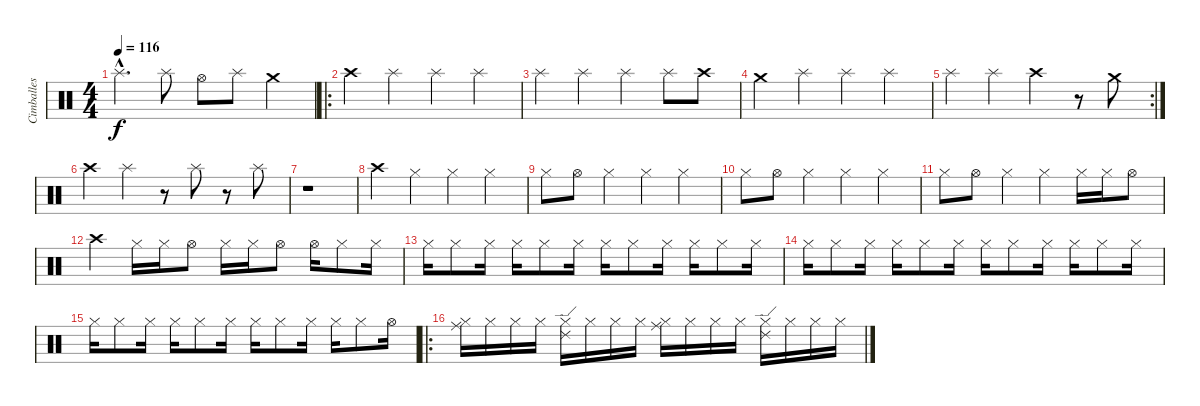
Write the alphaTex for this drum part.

\track ("Cimballes" "Cimballes") {instrument percussion}
\staff {score}
\articulation defaults
\ts (4 4)
\tempo 116
\clef neutral
\ks c "Splash (hit)"{hac}.4{d dy f} "Splash (hit)".8 "Hi-Hat (open)".8 "Splash (hit)".8 "Crash medium (hit)".4
|
\ro "Crash high (hit)".4 "Splash (hit)".4 "Splash (hit)".4 "Splash (hit)".4
|
"Splash (hit)".4 "Splash (hit)".4 "Splash (hit)".4 "Splash (hit)".8 "Crash high (hit)".8 |
"Crash medium (hit)".4 "Splash (hit)".4 "Splash (hit)".4 "Splash (hit)".4 |
\rc 2 "Splash (hit)".4 "Splash (hit)".4 "Crash high (hit)".4
r.8 "Crash medium (hit)".8 |
"Crash high (hit)".4 "Splash (hit)".4 r.8 "Splash (hit)".8 r.8 "Splash (hit)".8 |
r.1 |
"Crash high (hit)".4 "Hi-Hat (closed)".4 "Hi-Hat (closed)".4 "Hi-Hat (closed)".4 |
"Hi-Hat (closed)".8 "Hi-Hat (open)".8 "Hi-Hat (closed)".4 "Hi-Hat (closed)".4 "Hi-Hat (closed)".4 |
"Hi-Hat (closed)".8 "Hi-Hat (open)".8 "Hi-Hat (closed)".4 "Hi-Hat (closed)".4 "Hi-Hat (closed)".4 |
"Hi-Hat (closed)".8 "Hi-Hat (open)".8 "Hi-Hat (closed)".4 "Hi-Hat (closed)".4 "Hi-Hat (closed)".16 "Hi-Hat (closed)".16 "Hi-Hat (open)".8 |
"Crash high (hit)".4 "Hi-Hat (closed)".16 "Hi-Hat (closed)".16 "Hi-Hat (open)".8 "Hi-Hat (closed)".16 "Hi-Hat (closed)".16 "Hi-Hat (open)".8 "Hi-Hat (open)".16 "Hi-Hat (closed)".8 "Hi-Hat (closed)".16 |
"Hi-Hat (closed)".16 "Hi-Hat (closed)".8 "Hi-Hat (closed)".16 "Hi-Hat (closed)".16 "Hi-Hat (closed)".8 "Hi-Hat (closed)".16 "Hi-Hat (closed)".16 "Hi-Hat (closed)".8 "Hi-Hat (closed)".16 "Hi-Hat (closed)".16 "Hi-Hat (closed)".8 "Hi-Hat (closed)".16 |
"Hi-Hat (closed)".16 "Hi-Hat (closed)".8 "Hi-Hat (closed)".16 "Hi-Hat (closed)".16 "Hi-Hat (closed)".8 "Hi-Hat (closed)".16 "Hi-Hat (closed)".16 "Hi-Hat (closed)".8 "Hi-Hat (closed)".16 "Hi-Hat (closed)".16 "Hi-Hat (closed)".8 "Hi-Hat (closed)".16 |
"Hi-Hat (closed)".16 "Hi-Hat (closed)".8 "Hi-Hat (closed)".16 "Hi-Hat (closed)".16 "Hi-Hat (closed)".8 "Hi-Hat (closed)".16 "Hi-Hat (closed)".16 "Hi-Hat (closed)".8 "Hi-Hat (closed)".16 "Hi-Hat (closed)".16 "Hi-Hat (closed)".8 "Hi-Hat (open)".16 |
\ro
("Ride (middle)" "Hi-Hat (closed)").16 "Hi-Hat (closed)".16 "Hi-Hat (closed)".16 "Hi-Hat (closed)".16 ("Ride (edge) 2" "Hi-Hat (closed)").16 "Hi-Hat (closed)".16 "Hi-Hat (closed)".16 "Hi-Hat (closed)".16 ("Ride (middle)" "Hi-Hat (closed)").16 "Hi-Hat (closed)".16 "Hi-Hat (closed)".16 "Hi-Hat (closed)".16 ("Ride (edge) 2" "Hi-Hat (closed)").16 "Hi-Hat (closed)".16 "Hi-Hat (closed)".16 "Hi-Hat (closed)".16
